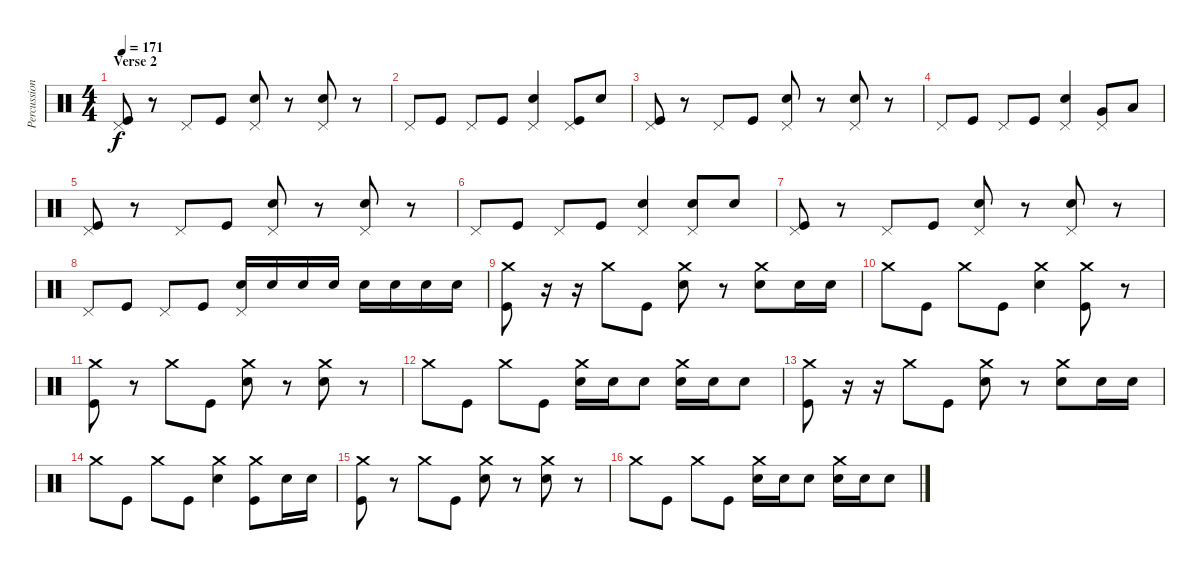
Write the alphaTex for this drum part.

\track ("Percussion" "Percussion") {instrument percussion}
\staff {score}
\articulation defaults
\ts (4 4)
\section ("" "Verse 2")
\tempo 171
\clef neutral
\ks c
("Pedal Hi-Hat (hit)" "Kick (hit)").8{dy f} r.8 "Pedal Hi-Hat (hit)".8 "Kick (hit)".8 ("Pedal Hi-Hat (hit)" "Electric Snare (hit)").8 r.8 ("Pedal Hi-Hat (hit)" "Electric Snare (hit)").8 r.8 |
"Pedal Hi-Hat (hit)".8 "Kick (hit)".8 "Pedal Hi-Hat (hit)".8 "Kick (hit)".8 ("Pedal Hi-Hat (hit)" "Electric Snare (hit)").4 ("Pedal Hi-Hat (hit)" "Kick (hit)").8 "Electric Snare (hit)".8 |
("Pedal Hi-Hat (hit)" "Kick (hit)").8 r.8 "Pedal Hi-Hat (hit)".8 "Kick (hit)".8 ("Pedal Hi-Hat (hit)" "Electric Snare (hit)").8 r.8 ("Pedal Hi-Hat (hit)" "Electric Snare (hit)").8 r.8 |
"Pedal Hi-Hat (hit)".8 "Kick (hit)".8 "Pedal Hi-Hat (hit)".8 "Kick (hit)".8 ("Pedal Hi-Hat (hit)" "Electric Snare (hit)").4 ("Pedal Hi-Hat (hit)" "Very Low Tom (hit)").8 "Low Floor Tom (hit)".8 |
("Pedal Hi-Hat (hit)" "Kick (hit)").8 r.8 "Pedal Hi-Hat (hit)".8 "Kick (hit)".8 ("Pedal Hi-Hat (hit)" "Electric Snare (hit)").8 r.8 ("Pedal Hi-Hat (hit)" "Electric Snare (hit)").8 r.8 |
"Pedal Hi-Hat (hit)".8 "Kick (hit)".8 "Pedal Hi-Hat (hit)".8 "Kick (hit)".8 ("Pedal Hi-Hat (hit)" "Electric Snare (hit)").4 ("Pedal Hi-Hat (hit)" "Electric Snare (hit)").8 "Electric Snare (hit)".8 |
("Pedal Hi-Hat (hit)" "Kick (hit)").8 r.8 "Pedal Hi-Hat (hit)".8 "Kick (hit)".8 ("Pedal Hi-Hat (hit)" "Electric Snare (hit)").8 r.8 ("Pedal Hi-Hat (hit)" "Electric Snare (hit)").8 r.8 |
"Pedal Hi-Hat (hit)".8 "Kick (hit)".8 "Pedal Hi-Hat (hit)".8 "Kick (hit)".8 ("Pedal Hi-Hat (hit)" "Electric Snare (hit)").16 "Electric Snare (hit)".16 "Electric Snare (hit)".16 "Electric Snare (hit)".16 "Electric Snare (hit)".16 "Electric Snare (hit)".16 "Electric Snare (hit)".16 "Electric Snare (hit)".16 |
("Crash medium (hit)" "Kick (hit)").8 r.16 r.16 "Crash medium (hit)".8 "Kick (hit)".8 ("Crash medium (hit)" "Electric Snare (hit)").8 r.8 ("Crash medium (hit)" "Electric Snare (hit)").8 "Electric Snare (hit)".16 "Electric Snare (hit)".16 |
"Crash medium (hit)".8 "Kick (hit)".8 "Crash medium (hit)".8 "Kick (hit)".8 ("Crash medium (hit)" "Electric Snare (hit)").4 ("Crash medium (hit)" "Kick (hit)").8 r.8 |
("Crash medium (hit)" "Kick (hit)").8 r.8 "Crash medium (hit)".8 "Kick (hit)".8 ("Crash medium (hit)" "Electric Snare (hit)").8 r.8 ("Crash medium (hit)" "Electric Snare (hit)").8 r.8 |
"Crash medium (hit)".8 "Kick (hit)".8 "Crash medium (hit)".8 "Kick (hit)".8 ("Crash medium (hit)" "Electric Snare (hit)").16 "Electric Snare (hit)".16 "Electric Snare (hit)".8 ("Crash medium (hit)" "Electric Snare (hit)").16 "Electric Snare (hit)".16 "Electric Snare (hit)".8 |
("Crash medium (hit)" "Kick (hit)").8 r.16 r.16 "Crash medium (hit)".8 "Kick (hit)".8 ("Crash medium (hit)" "Electric Snare (hit)").8 r.8 ("Crash medium (hit)" "Electric Snare (hit)").8 "Electric Snare (hit)".16 "Electric Snare (hit)".16 |
"Crash medium (hit)".8 "Kick (hit)".8 "Crash medium (hit)".8 "Kick (hit)".8 ("Crash medium (hit)" "Electric Snare (hit)").4 ("Crash medium (hit)" "Kick (hit)").8 "Electric Snare (hit)".16 "Electric Snare (hit)".16 |
("Crash medium (hit)" "Kick (hit)").8 r.8 "Crash medium (hit)".8 "Kick (hit)".8 ("Crash medium (hit)" "Electric Snare (hit)").8 r.8 ("Crash medium (hit)" "Electric Snare (hit)").8 r.8 |
"Crash medium (hit)".8 "Kick (hit)".8 "Crash medium (hit)".8 "Kick (hit)".8 ("Crash medium (hit)" "Electric Snare (hit)").16 "Electric Snare (hit)".16 "Electric Snare (hit)".8 ("Crash medium (hit)" "Electric Snare (hit)").16 "Electric Snare (hit)".16 "Electric Snare (hit)".8
